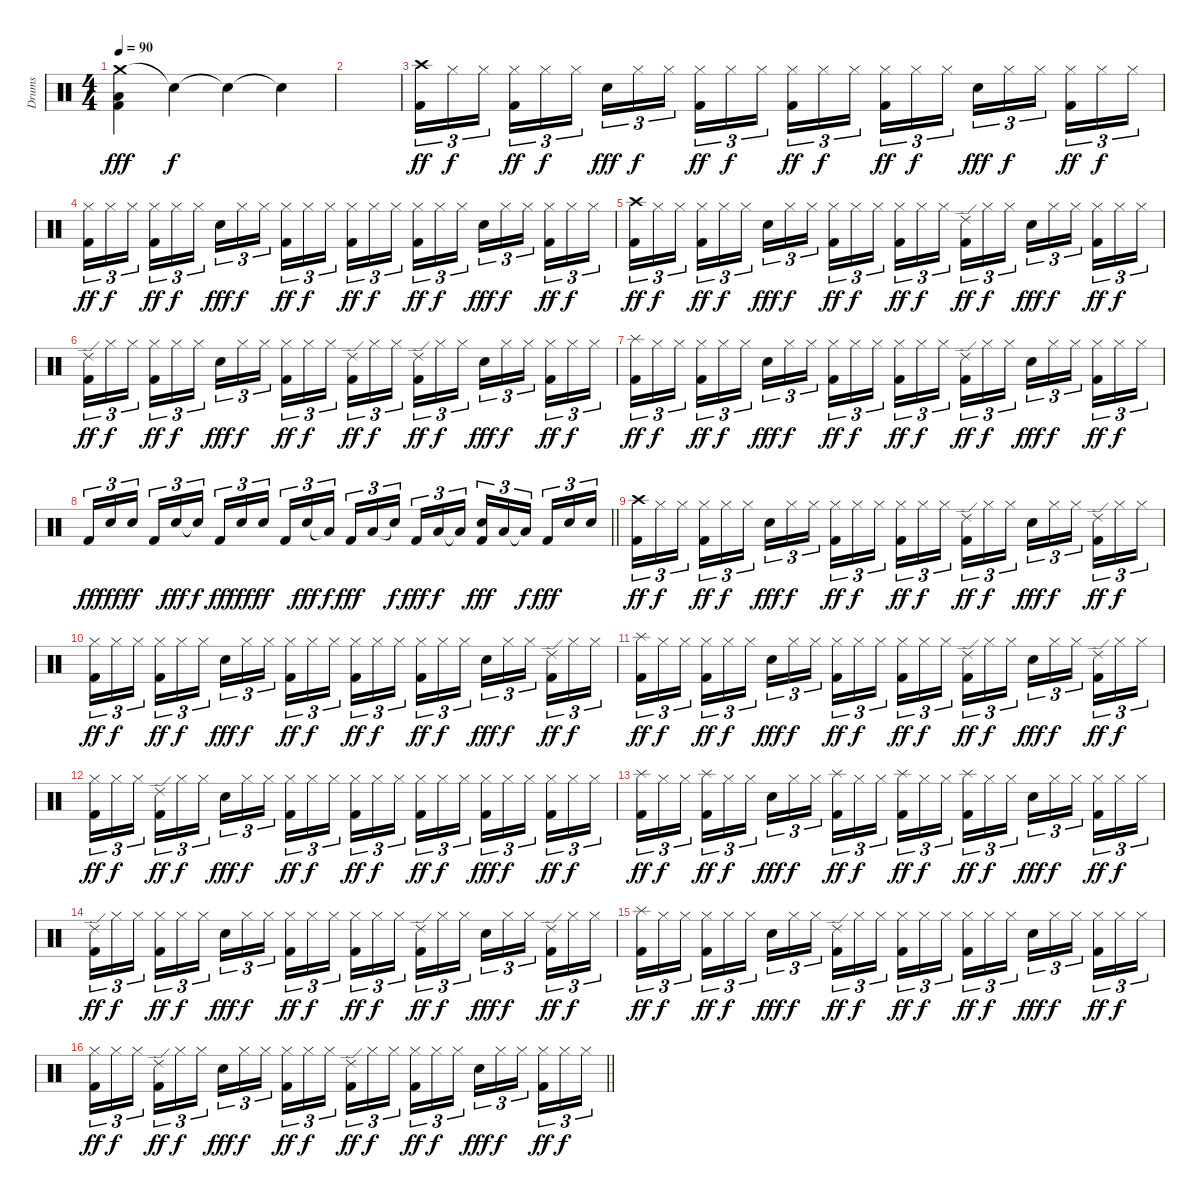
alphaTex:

\track ("Drums" "Drums") {instrument percussion}
\staff {score}
\articulation defaults
\ts (4 4)
\section ("" "")
\tempo 90
\clef neutral
\ks c
("Crash medium (hit)" "Low Tom (hit)" "Kick (hit) 2").4{dy fff} "Snare (hit)"{t}.4{dy f} "Snare (hit)"{t}.4 "Snare (hit)"{t}.4 |
|
("Crash high (hit)" "Kick (hit) 2").16{tu (3 2) dy ff} "Hi-Hat (closed)".16{tu (3 2) dy f} "Hi-Hat (closed)".16{tu (3 2) beam splitsecondary} ("Hi-Hat (closed)" "Kick (hit) 2").16{tu (3 2) dy ff} "Hi-Hat (closed)".16{tu (3 2) dy f} "Hi-Hat (closed)".16{tu (3 2)} "Snare (hit) 2".16{tu (3 2) dy fff} "Hi-Hat (closed)".16{tu (3 2) dy f} "Hi-Hat (closed)".16{tu (3 2) beam splitsecondary} ("Hi-Hat (closed)" "Kick (hit) 2").16{tu (3 2) dy ff} "Hi-Hat (closed)".16{tu (3 2) dy f} "Hi-Hat (closed)".16{tu (3 2)} ("Hi-Hat (closed)" "Kick (hit) 2").16{tu (3 2) dy ff} "Hi-Hat (closed)".16{tu (3 2) dy f} "Hi-Hat (closed)".16{tu (3 2) beam splitsecondary} ("Hi-Hat (closed)" "Kick (hit) 2").16{tu (3 2) dy ff} "Hi-Hat (closed)".16{tu (3 2) dy f} "Hi-Hat (closed)".16{tu (3 2)} "Snare (hit) 2".16{tu (3 2) dy fff} "Hi-Hat (closed)".16{tu (3 2) dy f} "Hi-Hat (closed)".16{tu (3 2) beam splitsecondary} ("Hi-Hat (closed)" "Kick (hit) 2").16{tu (3 2) dy ff} "Hi-Hat (closed)".16{tu (3 2) dy f} "Hi-Hat (closed)".16{tu (3 2)} |
("Hi-Hat (closed)" "Kick (hit) 2").16{tu (3 2) dy ff} "Hi-Hat (closed)".16{tu (3 2) dy f} "Hi-Hat (closed)".16{tu (3 2) beam splitsecondary} ("Hi-Hat (closed)" "Kick (hit) 2").16{tu (3 2) dy ff} "Hi-Hat (closed)".16{tu (3 2) dy f} "Hi-Hat (closed)".16{tu (3 2)} "Snare (hit) 2".16{tu (3 2) dy fff} "Hi-Hat (closed)".16{tu (3 2) dy f} "Hi-Hat (closed)".16{tu (3 2) beam splitsecondary} ("Hi-Hat (closed)" "Kick (hit) 2").16{tu (3 2) dy ff} "Hi-Hat (closed)".16{tu (3 2) dy f} "Hi-Hat (closed)".16{tu (3 2)} ("Hi-Hat (closed)" "Kick (hit) 2").16{tu (3 2) dy ff} "Hi-Hat (closed)".16{tu (3 2) dy f} "Hi-Hat (closed)".16{tu (3 2) beam splitsecondary} ("Hi-Hat (closed)" "Kick (hit) 2").16{tu (3 2) dy ff} "Hi-Hat (closed)".16{tu (3 2) dy f} "Hi-Hat (closed)".16{tu (3 2)} "Snare (hit) 2".16{tu (3 2) dy fff} "Hi-Hat (closed)".16{tu (3 2) dy f} "Hi-Hat (closed)".16{tu (3 2) beam splitsecondary} ("Hi-Hat (closed)" "Kick (hit) 2").16{tu (3 2) dy ff} "Hi-Hat (closed)".16{tu (3 2) dy f} "Hi-Hat (closed)".16{tu (3 2)} |
("Crash high (hit)" "Kick (hit) 2").16{tu (3 2) dy ff} "Hi-Hat (closed)".16{tu (3 2) dy f} "Hi-Hat (closed)".16{tu (3 2) beam splitsecondary} ("Hi-Hat (closed)" "Kick (hit) 2").16{tu (3 2) dy ff} "Hi-Hat (closed)".16{tu (3 2) dy f} "Hi-Hat (closed)".16{tu (3 2)} "Snare (hit) 2".16{tu (3 2) dy fff} "Hi-Hat (closed)".16{tu (3 2) dy f} "Hi-Hat (closed)".16{tu (3 2) beam splitsecondary} ("Hi-Hat (closed)" "Kick (hit) 2").16{tu (3 2) dy ff} "Hi-Hat (closed)".16{tu (3 2) dy f} "Hi-Hat (closed)".16{tu (3 2)} ("Hi-Hat (closed)" "Kick (hit) 2").16{tu (3 2) dy ff} "Hi-Hat (closed)".16{tu (3 2) dy f} "Hi-Hat (closed)".16{tu (3 2) beam splitsecondary} ("Ride (edge) 2" "Kick (hit) 2").16{tu (3 2) dy ff} "Hi-Hat (closed)".16{tu (3 2) dy f} "Hi-Hat (closed)".16{tu (3 2)} "Snare (hit) 2".16{tu (3 2) dy fff} "Hi-Hat (closed)".16{tu (3 2) dy f} "Hi-Hat (closed)".16{tu (3 2) beam splitsecondary} ("Hi-Hat (closed)" "Kick (hit) 2").16{tu (3 2) dy ff} "Hi-Hat (closed)".16{tu (3 2) dy f} "Hi-Hat (closed)".16{tu (3 2)} |
("Ride (edge) 2" "Kick (hit) 2").16{tu (3 2) dy ff} "Hi-Hat (closed)".16{tu (3 2) dy f} "Hi-Hat (closed)".16{tu (3 2) beam splitsecondary} ("Hi-Hat (closed)" "Kick (hit) 2").16{tu (3 2) dy ff} "Hi-Hat (closed)".16{tu (3 2) dy f} "Hi-Hat (closed)".16{tu (3 2)} "Snare (hit) 2".16{tu (3 2) dy fff} "Hi-Hat (closed)".16{tu (3 2) dy f} "Hi-Hat (closed)".16{tu (3 2) beam splitsecondary} ("Hi-Hat (closed)" "Kick (hit) 2").16{tu (3 2) dy ff} "Hi-Hat (closed)".16{tu (3 2) dy f} "Hi-Hat (closed)".16{tu (3 2)} ("Ride (edge) 2" "Kick (hit) 2").16{tu (3 2) dy ff} "Hi-Hat (closed)".16{tu (3 2) dy f} "Hi-Hat (closed)".16{tu (3 2) beam splitsecondary} ("Ride (edge) 2" "Kick (hit) 2").16{tu (3 2) dy ff} "Hi-Hat (closed)".16{tu (3 2) dy f} "Hi-Hat (closed)".16{tu (3 2)} "Snare (hit) 2".16{tu (3 2) dy fff} "Hi-Hat (closed)".16{tu (3 2) dy f} "Hi-Hat (closed)".16{tu (3 2) beam splitsecondary} ("Hi-Hat (closed)" "Kick (hit) 2").16{tu (3 2) dy ff} "Hi-Hat (closed)".16{tu (3 2) dy f} "Hi-Hat (closed)".16{tu (3 2)} |
("Splash (hit)" "Kick (hit) 2").16{tu (3 2) dy ff} "Hi-Hat (closed)".16{tu (3 2) dy f} "Hi-Hat (closed)".16{tu (3 2) beam splitsecondary} ("Hi-Hat (closed)" "Kick (hit) 2").16{tu (3 2) dy ff} "Hi-Hat (closed)".16{tu (3 2) dy f} "Hi-Hat (closed)".16{tu (3 2)} "Snare (hit) 2".16{tu (3 2) dy fff} "Hi-Hat (closed)".16{tu (3 2) dy f} "Hi-Hat (closed)".16{tu (3 2) beam splitsecondary} ("Hi-Hat (closed)" "Kick (hit) 2").16{tu (3 2) dy ff} "Hi-Hat (closed)".16{tu (3 2) dy f} "Hi-Hat (closed)".16{tu (3 2)} ("Hi-Hat (closed)" "Kick (hit) 2").16{tu (3 2) dy ff} "Hi-Hat (closed)".16{tu (3 2) dy f} "Hi-Hat (closed)".16{tu (3 2) beam splitsecondary} ("Ride (edge) 2" "Kick (hit) 2").16{tu (3 2) dy ff} "Hi-Hat (closed)".16{tu (3 2) dy f} "Hi-Hat (closed)".16{tu (3 2)} "Snare (hit) 2".16{tu (3 2) dy fff} "Hi-Hat (closed)".16{tu (3 2) dy f} "Hi-Hat (closed)".16{tu (3 2) beam splitsecondary} ("Hi-Hat (closed)" "Kick (hit) 2").16{tu (3 2) dy ff} "Hi-Hat (closed)".16{tu (3 2) dy f} "Hi-Hat (closed)".16{tu (3 2)} |
\barLineRight lightlight "Kick (hit) 2".16{tu (3 2) dy ff} "Snare (hit) 2".16{tu (3 2) dy fff} "Snare (hit) 2".16{tu (3 2) dy ff beam splitsecondary} "Kick (hit) 2".16{tu (3 2)} "Snare (hit) 2".16{tu (3 2) dy fff} "Snare (hit) 2"{t}.16{tu (3 2) dy f} "Kick (hit) 2".16{tu (3 2) dy ff} "Snare (hit) 2".16{tu (3 2) dy fff} "Snare (hit) 2".16{tu (3 2) dy ff beam splitsecondary} "Kick (hit) 2".16{tu (3 2)} "Snare (hit) 2".16{tu (3 2) dy fff} "Low Tom (hit)"{t}.16{tu (3 2) dy f} "Kick (hit) 2".16{tu (3 2) dy fff} "Low Tom (hit)".16{tu (3 2)} "Snare (hit) 2"{t}.16{tu (3 2) dy f beam splitsecondary} "Kick (hit) 2".16{tu (3 2) dy fff} "Low Tom (hit)".16{tu (3 2) dy f} "Low Tom (hit)"{t}.16{tu (3 2)}
("Snare (hit) 2" "Kick (hit) 2").16{tu (3 2) dy fff} "Low Tom (hit)".16{tu (3 2)} "Low Tom (hit)"{t}.16{tu (3 2) dy f beam splitsecondary} "Kick (hit) 2".16{tu (3 2) dy fff} "Snare (hit) 2".16{tu (3 2)} "Snare (hit) 2".16{tu (3 2)} |
("Crash high (hit)" "Kick (hit) 2").16{tu (3 2) dy ff} "Hi-Hat (closed)".16{tu (3 2) dy f} "Hi-Hat (closed)".16{tu (3 2) beam splitsecondary} ("Hi-Hat (closed)" "Kick (hit) 2").16{tu (3 2) dy ff} "Hi-Hat (closed)".16{tu (3 2) dy f} "Hi-Hat (closed)".16{tu (3 2)} "Snare (hit) 2".16{tu (3 2) dy fff} "Hi-Hat (closed)".16{tu (3 2) dy f} "Hi-Hat (closed)".16{tu (3 2) beam splitsecondary} ("Hi-Hat (closed)" "Kick (hit) 2").16{tu (3 2) dy ff} "Hi-Hat (closed)".16{tu (3 2) dy f} "Hi-Hat (closed)".16{tu (3 2)} ("Hi-Hat (closed)" "Kick (hit) 2").16{tu (3 2) dy ff} "Hi-Hat (closed)".16{tu (3 2) dy f} "Hi-Hat (closed)".16{tu (3 2) beam splitsecondary} ("Ride (edge) 2" "Kick (hit) 2").16{tu (3 2) dy ff} "Hi-Hat (closed)".16{tu (3 2) dy f} "Hi-Hat (closed)".16{tu (3 2)} "Snare (hit) 2".16{tu (3 2) dy fff} "Hi-Hat (closed)".16{tu (3 2) dy f} "Hi-Hat (closed)".16{tu (3 2) beam splitsecondary} ("Ride (edge) 2" "Kick (hit) 2").16{tu (3 2) dy ff} "Hi-Hat (closed)".16{tu (3 2) dy f} "Hi-Hat (closed)".16{tu (3 2)} |
("Hi-Hat (closed)" "Kick (hit) 2").16{tu (3 2) dy ff} "Hi-Hat (closed)".16{tu (3 2) dy f} "Hi-Hat (closed)".16{tu (3 2) beam splitsecondary} ("Hi-Hat (closed)" "Kick (hit) 2").16{tu (3 2) dy ff} "Hi-Hat (closed)".16{tu (3 2) dy f} "Hi-Hat (closed)".16{tu (3 2)} "Snare (hit) 2".16{tu (3 2) dy fff} "Hi-Hat (closed)".16{tu (3 2) dy f} "Hi-Hat (closed)".16{tu (3 2) beam splitsecondary} ("Hi-Hat (closed)" "Kick (hit) 2").16{tu (3 2) dy ff} "Hi-Hat (closed)".16{tu (3 2) dy f} "Hi-Hat (closed)".16{tu (3 2)} ("Hi-Hat (closed)" "Kick (hit) 2").16{tu (3 2) dy ff} "Hi-Hat (closed)".16{tu (3 2) dy f} "Hi-Hat (closed)".16{tu (3 2) beam splitsecondary} ("Hi-Hat (closed)" "Kick (hit) 2").16{tu (3 2) dy ff} "Hi-Hat (closed)".16{tu (3 2) dy f} "Hi-Hat (closed)".16{tu (3 2)} "Snare (hit) 2".16{tu (3 2) dy fff} "Hi-Hat (closed)".16{tu (3 2) dy f} "Hi-Hat (closed)".16{tu (3 2) beam splitsecondary} ("Ride (edge) 2" "Kick (hit) 2").16{tu (3 2) dy ff} "Hi-Hat (closed)".16{tu (3 2) dy f} "Hi-Hat (closed)".16{tu (3 2)} |
("Splash (hit)" "Kick (hit) 2").16{tu (3 2) dy ff} "Hi-Hat (closed)".16{tu (3 2) dy f} "Hi-Hat (closed)".16{tu (3 2) beam splitsecondary} ("Hi-Hat (closed)" "Kick (hit) 2").16{tu (3 2) dy ff} "Hi-Hat (closed)".16{tu (3 2) dy f} "Hi-Hat (closed)".16{tu (3 2)} "Snare (hit) 2".16{tu (3 2) dy fff} "Hi-Hat (closed)".16{tu (3 2) dy f} "Hi-Hat (closed)".16{tu (3 2) beam splitsecondary} ("Hi-Hat (closed)" "Kick (hit) 2").16{tu (3 2) dy ff} "Hi-Hat (closed)".16{tu (3 2) dy f} "Hi-Hat (closed)".16{tu (3 2)} ("Hi-Hat (closed)" "Kick (hit) 2").16{tu (3 2) dy ff} "Hi-Hat (closed)".16{tu (3 2) dy f} "Hi-Hat (closed)".16{tu (3 2) beam splitsecondary} ("Ride (edge) 2" "Kick (hit) 2").16{tu (3 2) dy ff} "Hi-Hat (closed)".16{tu (3 2) dy f} "Hi-Hat (closed)".16{tu (3 2)} "Snare (hit) 2".16{tu (3 2) dy fff} "Hi-Hat (closed)".16{tu (3 2) dy f} "Hi-Hat (closed)".16{tu (3 2) beam splitsecondary} ("Ride (edge) 2" "Kick (hit) 2").16{tu (3 2) dy ff} "Hi-Hat (closed)".16{tu (3 2) dy f} "Hi-Hat (closed)".16{tu (3 2)} |
("Hi-Hat (closed)" "Kick (hit) 2").16{tu (3 2) dy ff} "Hi-Hat (closed)".16{tu (3 2) dy f} "Hi-Hat (closed)".16{tu (3 2) beam splitsecondary} ("Ride (edge) 2" "Kick (hit) 2").16{tu (3 2) dy ff} "Hi-Hat (closed)".16{tu (3 2) dy f} "Hi-Hat (closed)".16{tu (3 2)} "Snare (hit) 2".16{tu (3 2) dy fff} "Hi-Hat (closed)".16{tu (3 2) dy f} "Hi-Hat (closed)".16{tu (3 2) beam splitsecondary} ("Hi-Hat (closed)" "Kick (hit) 2").16{tu (3 2) dy ff} "Hi-Hat (closed)".16{tu (3 2) dy f} "Hi-Hat (closed)".16{tu (3 2)} ("Hi-Hat (closed)" "Kick (hit) 2").16{tu (3 2) dy ff} "Hi-Hat (closed)".16{tu (3 2) dy f} "Hi-Hat (closed)".16{tu (3 2) beam splitsecondary} ("Hi-Hat (closed)" "Kick (hit) 2").16{tu (3 2) dy ff} "Hi-Hat (closed)".16{tu (3 2) dy f} "Hi-Hat (closed)".16{tu (3 2)} ("Hi-Hat (closed)" "Kick (hit) 2").16{tu (3 2) dy fff} "Hi-Hat (closed)".16{tu (3 2) dy f} "Hi-Hat (closed)".16{tu (3 2) beam splitsecondary} ("Hi-Hat (closed)" "Kick (hit) 2").16{tu (3 2) dy ff} "Hi-Hat (closed)".16{tu (3 2) dy f} "Hi-Hat (closed)".16{tu (3 2)} |
("Splash (hit)" "Kick (hit) 2").16{tu (3 2) dy ff} "Hi-Hat (closed)".16{tu (3 2) dy f} "Hi-Hat (closed)".16{tu (3 2) beam splitsecondary} ("Splash (hit)" "Kick (hit) 2").16{tu (3 2) dy ff} "Hi-Hat (closed)".16{tu (3 2) dy f} "Hi-Hat (closed)".16{tu (3 2)} "Snare (hit) 2".16{tu (3 2) dy fff} "Hi-Hat (closed)".16{tu (3 2) dy f} "Hi-Hat (closed)".16{tu (3 2) beam splitsecondary} ("Splash (hit)" "Kick (hit) 2").16{tu (3 2) dy ff} "Hi-Hat (closed)".16{tu (3 2) dy f} "Hi-Hat (closed)".16{tu (3 2)} ("Splash (hit)" "Kick (hit) 2").16{tu (3 2) dy ff} "Hi-Hat (closed)".16{tu (3 2) dy f} "Hi-Hat (closed)".16{tu (3 2) beam splitsecondary} ("Splash (hit)" "Kick (hit) 2").16{tu (3 2) dy ff} "Hi-Hat (closed)".16{tu (3 2) dy f} "Hi-Hat (closed)".16{tu (3 2)} "Snare (hit) 2".16{tu (3 2) dy fff} "Hi-Hat (closed)".16{tu (3 2) dy f} "Hi-Hat (closed)".16{tu (3 2) beam splitsecondary} ("Hi-Hat (closed)" "Kick (hit) 2").16{tu (3 2) dy ff} "Hi-Hat (closed)".16{tu (3 2) dy f} "Hi-Hat (closed)".16{tu (3 2)} |
("Ride (edge) 2" "Kick (hit) 2").16{tu (3 2) dy ff} "Hi-Hat (closed)".16{tu (3 2) dy f} "Hi-Hat (closed)".16{tu (3 2) beam splitsecondary} ("Hi-Hat (closed)" "Kick (hit) 2").16{tu (3 2) dy ff} "Hi-Hat (closed)".16{tu (3 2) dy f} "Hi-Hat (closed)".16{tu (3 2)} "Snare (hit) 2".16{tu (3 2) dy fff} "Hi-Hat (closed)".16{tu (3 2) dy f} "Hi-Hat (closed)".16{tu (3 2) beam splitsecondary} ("Hi-Hat (closed)" "Kick (hit) 2").16{tu (3 2) dy ff} "Hi-Hat (closed)".16{tu (3 2) dy f} "Hi-Hat (closed)".16{tu (3 2)} ("Hi-Hat (closed)" "Kick (hit) 2").16{tu (3 2) dy ff} "Hi-Hat (closed)".16{tu (3 2) dy f} "Hi-Hat (closed)".16{tu (3 2) beam splitsecondary} ("Ride (edge) 2" "Kick (hit) 2").16{tu (3 2) dy ff} "Hi-Hat (closed)".16{tu (3 2) dy f} "Hi-Hat (closed)".16{tu (3 2)} "Snare (hit) 2".16{tu (3 2) dy fff} "Hi-Hat (closed)".16{tu (3 2) dy f} "Hi-Hat (closed)".16{tu (3 2) beam splitsecondary} ("Ride (edge) 2" "Kick (hit) 2").16{tu (3 2) dy ff} "Hi-Hat (closed)".16{tu (3 2) dy f} "Hi-Hat (closed)".16{tu (3 2)} |
("Splash (hit)" "Kick (hit) 2").16{tu (3 2) dy ff} "Hi-Hat (closed)".16{tu (3 2) dy f} "Hi-Hat (closed)".16{tu (3 2) beam splitsecondary} ("Hi-Hat (closed)" "Kick (hit) 2").16{tu (3 2) dy ff} "Hi-Hat (closed)".16{tu (3 2) dy f} "Hi-Hat (closed)".16{tu (3 2)} "Snare (hit) 2".16{tu (3 2) dy fff} "Hi-Hat (closed)".16{tu (3 2) dy f} "Hi-Hat (closed)".16{tu (3 2) beam splitsecondary} ("Ride (edge) 2" "Kick (hit) 2").16{tu (3 2) dy ff} "Hi-Hat (closed)".16{tu (3 2) dy f} "Hi-Hat (closed)".16{tu (3 2)} ("Hi-Hat (closed)" "Kick (hit) 2").16{tu (3 2) dy ff} "Hi-Hat (closed)".16{tu (3 2) dy f} "Hi-Hat (closed)".16{tu (3 2) beam splitsecondary} ("Hi-Hat (closed)" "Kick (hit) 2").16{tu (3 2) dy ff} "Hi-Hat (closed)".16{tu (3 2) dy f} "Hi-Hat (closed)".16{tu (3 2)} "Snare (hit) 2".16{tu (3 2) dy fff} "Hi-Hat (closed)".16{tu (3 2) dy f} "Hi-Hat (closed)".16{tu (3 2) beam splitsecondary} ("Hi-Hat (closed)" "Kick (hit) 2").16{tu (3 2) dy ff} "Hi-Hat (closed)".16{tu (3 2) dy f} "Hi-Hat (closed)".16{tu (3 2)} |
\barLineRight lightlight
("Hi-Hat (closed)" "Kick (hit) 2").16{tu (3 2) dy ff} "Hi-Hat (closed)".16{tu (3 2) dy f} "Hi-Hat (closed)".16{tu (3 2) beam splitsecondary} ("Ride (edge) 2" "Kick (hit) 2").16{tu (3 2) dy ff} "Hi-Hat (closed)".16{tu (3 2) dy f} "Hi-Hat (closed)".16{tu (3 2)} "Snare (hit) 2".16{tu (3 2) dy fff} "Hi-Hat (closed)".16{tu (3 2) dy f} "Hi-Hat (closed)".16{tu (3 2) beam splitsecondary} ("Hi-Hat (closed)" "Kick (hit) 2").16{tu (3 2) dy ff} "Hi-Hat (closed)".16{tu (3 2) dy f} "Hi-Hat (closed)".16{tu (3 2)} ("Ride (edge) 2" "Kick (hit) 2").16{tu (3 2) dy ff} "Hi-Hat (closed)".16{tu (3 2) dy f} "Hi-Hat (closed)".16{tu (3 2) beam splitsecondary} ("Hi-Hat (closed)" "Kick (hit) 2").16{tu (3 2) dy ff} "Hi-Hat (closed)".16{tu (3 2) dy f} "Hi-Hat (closed)".16{tu (3 2)} "Snare (hit) 2".16{tu (3 2) dy fff} "Hi-Hat (closed)".16{tu (3 2) dy f} "Hi-Hat (closed)".16{tu (3 2) beam splitsecondary} ("Hi-Hat (closed)" "Kick (hit) 2").16{tu (3 2) dy ff} "Hi-Hat (closed)".16{tu (3 2) dy f} "Hi-Hat (closed)".16{tu (3 2)}
